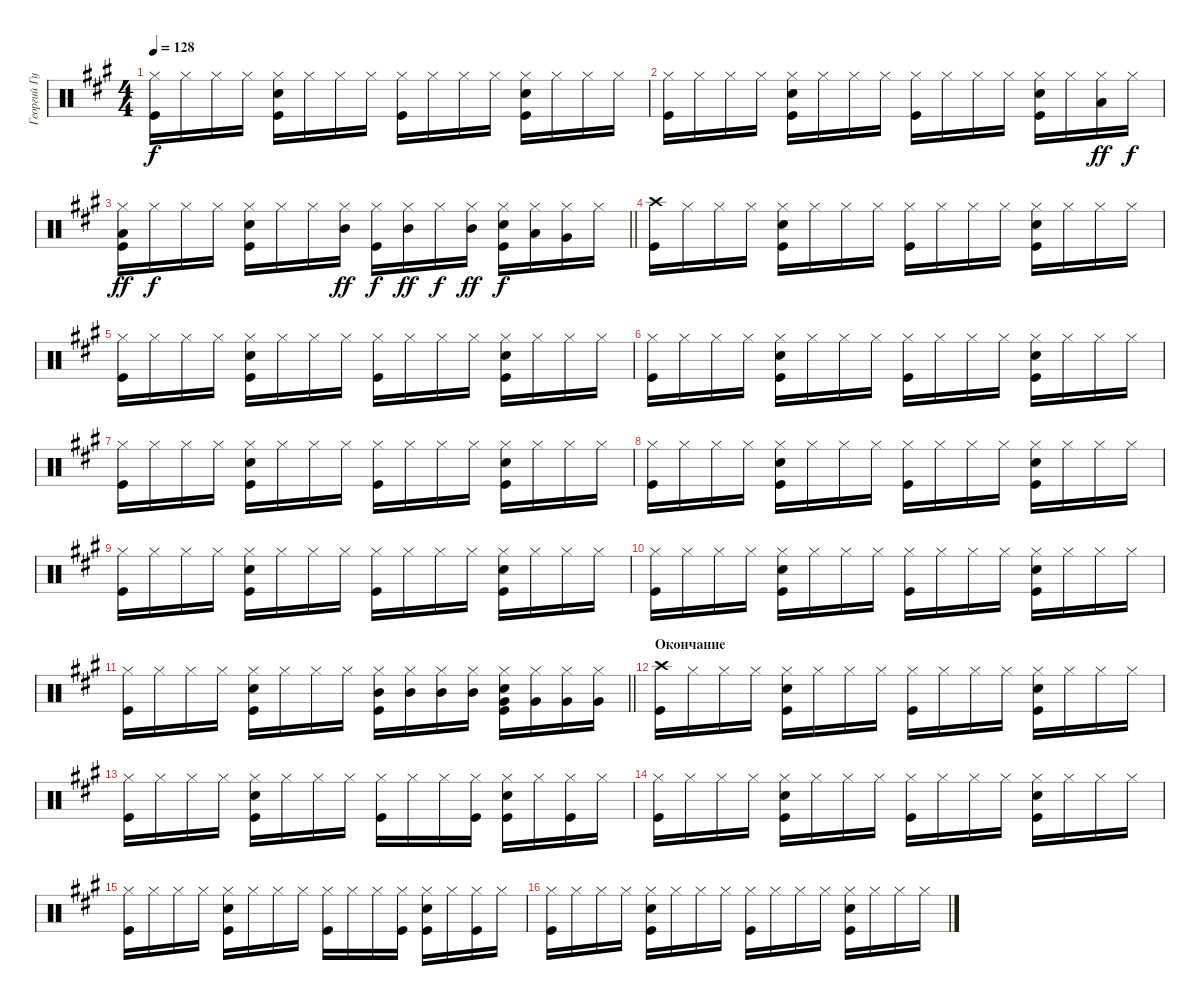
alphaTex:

\track ("Георгий Гурьянов" "Георгий Гу") {instrument percussion}
\staff {score}
\articulation defaults
\ts (4 4)
\tempo 128
\clef neutral
\ks f#minor
("Hi-Hat (closed)" "Kick (hit)").16{dy f} "Hi-Hat (closed)".16 "Hi-Hat (closed)".16 "Hi-Hat (closed)".16 ("Hi-Hat (closed)" "Snare (hit) 2" "Kick (hit)").16 "Hi-Hat (closed)".16 "Hi-Hat (closed)".16 "Hi-Hat (closed)".16 ("Hi-Hat (closed)" "Kick (hit)").16 "Hi-Hat (closed)".16 "Hi-Hat (closed)".16 "Hi-Hat (closed)".16 ("Hi-Hat (closed)" "Snare (hit) 2" "Kick (hit)").16 "Hi-Hat (closed)".16 "Hi-Hat (closed)".16 "Hi-Hat (closed)".16 |
("Hi-Hat (closed)" "Kick (hit)").16 "Hi-Hat (closed)".16 "Hi-Hat (closed)".16 "Hi-Hat (closed)".16 ("Hi-Hat (closed)" "Snare (hit) 2" "Kick (hit)").16 "Hi-Hat (closed)".16 "Hi-Hat (closed)".16 "Hi-Hat (closed)".16 ("Hi-Hat (closed)" "Kick (hit)").16 "Hi-Hat (closed)".16 "Hi-Hat (closed)".16 "Hi-Hat (closed)".16 ("Hi-Hat (closed)" "Snare (hit) 2" "Kick (hit)").16 "Hi-Hat (closed)".16 ("Hi-Hat (closed)" "Low Floor Tom (hit)").16{dy ff} "Hi-Hat (closed)".16{dy f} |
\barLineRight lightlight
("Hi-Hat (closed)" "Kick (hit)" "Low Floor Tom (hit)").16{dy ff} "Hi-Hat (closed)".16{dy f} "Hi-Hat (closed)".16 "Hi-Hat (closed)".16 ("Hi-Hat (closed)" "Snare (hit) 2" "Kick (hit)").16 "Hi-Hat (closed)".16 "Hi-Hat (closed)".16 ("Mid Tom (hit)" "Hi-Hat (closed)").16{dy ff} ("Hi-Hat (closed)" "Kick (hit)").16{dy f} ("Mid Tom (hit)" "Hi-Hat (closed)").16{dy ff} "Hi-Hat (closed)".16{dy f} ("Mid Tom (hit)" "Hi-Hat (closed)").16{dy ff} ("Hi-Hat (closed)" "Snare (hit) 2" "Kick (hit)").16{dy f} ("Hi-Hat (closed)" "Low Tom (hit)").16 ("Very Low Tom (hit)" "Hi-Hat (closed)").16 "Hi-Hat (closed)".16 |
("Kick (hit)" "Crash high (hit)").16 "Hi-Hat (closed)".16 "Hi-Hat (closed)".16 "Hi-Hat (closed)".16 ("Hi-Hat (closed)" "Snare (hit) 2" "Kick (hit)").16 "Hi-Hat (closed)".16 "Hi-Hat (closed)".16 "Hi-Hat (closed)".16 ("Hi-Hat (closed)" "Kick (hit)").16 "Hi-Hat (closed)".16 "Hi-Hat (closed)".16 "Hi-Hat (closed)".16 ("Hi-Hat (closed)" "Snare (hit) 2" "Kick (hit)").16 "Hi-Hat (closed)".16 "Hi-Hat (closed)".16 "Hi-Hat (closed)".16 |
("Kick (hit)" "Hi-Hat (closed)").16 "Hi-Hat (closed)".16 "Hi-Hat (closed)".16 "Hi-Hat (closed)".16 ("Hi-Hat (closed)" "Snare (hit) 2" "Kick (hit)").16 "Hi-Hat (closed)".16 "Hi-Hat (closed)".16 "Hi-Hat (closed)".16 ("Hi-Hat (closed)" "Kick (hit)").16 "Hi-Hat (closed)".16 "Hi-Hat (closed)".16 "Hi-Hat (closed)".16 ("Hi-Hat (closed)" "Snare (hit) 2" "Kick (hit)").16 "Hi-Hat (closed)".16 "Hi-Hat (closed)".16 "Hi-Hat (closed)".16 |
("Hi-Hat (closed)" "Kick (hit)").16 "Hi-Hat (closed)".16 "Hi-Hat (closed)".16 "Hi-Hat (closed)".16 ("Hi-Hat (closed)" "Snare (hit) 2" "Kick (hit)").16 "Hi-Hat (closed)".16 "Hi-Hat (closed)".16 "Hi-Hat (closed)".16 ("Hi-Hat (closed)" "Kick (hit)").16 "Hi-Hat (closed)".16 "Hi-Hat (closed)".16 "Hi-Hat (closed)".16 ("Hi-Hat (closed)" "Snare (hit) 2" "Kick (hit)").16 "Hi-Hat (closed)".16 "Hi-Hat (closed)".16 "Hi-Hat (closed)".16 |
("Hi-Hat (closed)" "Kick (hit)").16 "Hi-Hat (closed)".16 "Hi-Hat (closed)".16 "Hi-Hat (closed)".16 ("Hi-Hat (closed)" "Snare (hit) 2" "Kick (hit)").16 "Hi-Hat (closed)".16 "Hi-Hat (closed)".16 "Hi-Hat (closed)".16 ("Hi-Hat (closed)" "Kick (hit)").16 "Hi-Hat (closed)".16 "Hi-Hat (closed)".16 "Hi-Hat (closed)".16 ("Hi-Hat (closed)" "Snare (hit) 2" "Kick (hit)").16 "Hi-Hat (closed)".16 "Hi-Hat (closed)".16 "Hi-Hat (closed)".16 |
("Kick (hit)" "Hi-Hat (closed)").16 "Hi-Hat (closed)".16 "Hi-Hat (closed)".16 "Hi-Hat (closed)".16 ("Hi-Hat (closed)" "Snare (hit) 2" "Kick (hit)").16 "Hi-Hat (closed)".16 "Hi-Hat (closed)".16 "Hi-Hat (closed)".16 ("Hi-Hat (closed)" "Kick (hit)").16 "Hi-Hat (closed)".16 "Hi-Hat (closed)".16 "Hi-Hat (closed)".16 ("Hi-Hat (closed)" "Snare (hit) 2" "Kick (hit)").16 "Hi-Hat (closed)".16 "Hi-Hat (closed)".16 "Hi-Hat (closed)".16 |
("Hi-Hat (closed)" "Kick (hit)").16 "Hi-Hat (closed)".16 "Hi-Hat (closed)".16 "Hi-Hat (closed)".16 ("Hi-Hat (closed)" "Snare (hit) 2" "Kick (hit)").16 "Hi-Hat (closed)".16 "Hi-Hat (closed)".16 "Hi-Hat (closed)".16 ("Hi-Hat (closed)" "Kick (hit)").16 "Hi-Hat (closed)".16 "Hi-Hat (closed)".16 "Hi-Hat (closed)".16 ("Hi-Hat (closed)" "Snare (hit) 2" "Kick (hit)").16 "Hi-Hat (closed)".16 "Hi-Hat (closed)".16 "Hi-Hat (closed)".16 |
("Hi-Hat (closed)" "Kick (hit)").16 "Hi-Hat (closed)".16 "Hi-Hat (closed)".16 "Hi-Hat (closed)".16 ("Hi-Hat (closed)" "Snare (hit) 2" "Kick (hit)").16 "Hi-Hat (closed)".16 "Hi-Hat (closed)".16 "Hi-Hat (closed)".16 ("Hi-Hat (closed)" "Kick (hit)").16 "Hi-Hat (closed)".16 "Hi-Hat (closed)".16 "Hi-Hat (closed)".16 ("Hi-Hat (closed)" "Snare (hit) 2" "Kick (hit)").16 "Hi-Hat (closed)".16 "Hi-Hat (closed)".16 "Hi-Hat (closed)".16 |
\barLineRight lightlight
("Hi-Hat (closed)" "Kick (hit)").16 "Hi-Hat (closed)".16 "Hi-Hat (closed)".16 "Hi-Hat (closed)".16 ("Hi-Hat (closed)" "Snare (hit) 2" "Kick (hit)").16 "Hi-Hat (closed)".16 "Hi-Hat (closed)".16 "Hi-Hat (closed)".16 ("Mid Tom (hit)" "Hi-Hat (closed)" "Kick (hit)").16 ("Mid Tom (hit)" "Hi-Hat (closed)").16 ("Mid Tom (hit)" "Hi-Hat (closed)").16 ("Mid Tom (hit)" "Hi-Hat (closed)").16 ("Very Low Tom (hit)" "Hi-Hat (closed)" "Snare (hit) 2" "Kick (hit)").16 ("Very Low Tom (hit)" "Hi-Hat (closed)").16 ("Very Low Tom (hit)" "Hi-Hat (closed)").16 ("Very Low Tom (hit)" "Hi-Hat (closed)").16 |
\section ("" "Окончание")
("Kick (hit)" "Crash high (hit)").16 "Hi-Hat (closed)".16 "Hi-Hat (closed)".16 "Hi-Hat (closed)".16 ("Hi-Hat (closed)" "Snare (hit) 2" "Kick (hit)").16 "Hi-Hat (closed)".16 "Hi-Hat (closed)".16 "Hi-Hat (closed)".16 ("Hi-Hat (closed)" "Kick (hit)").16 "Hi-Hat (closed)".16 "Hi-Hat (closed)".16 "Hi-Hat (closed)".16 ("Hi-Hat (closed)" "Snare (hit) 2" "Kick (hit)").16 "Hi-Hat (closed)".16 "Hi-Hat (closed)".16 "Hi-Hat (closed)".16 |
("Hi-Hat (closed)" "Kick (hit)").16 "Hi-Hat (closed)".16 "Hi-Hat (closed)".16 "Hi-Hat (closed)".16 ("Hi-Hat (closed)" "Snare (hit) 2" "Kick (hit)").16 "Hi-Hat (closed)".16 "Hi-Hat (closed)".16 "Hi-Hat (closed)".16 ("Hi-Hat (closed)" "Kick (hit)").16 "Hi-Hat (closed)".16 "Hi-Hat (closed)".16 ("Hi-Hat (closed)" "Kick (hit)").16 ("Hi-Hat (closed)" "Snare (hit) 2" "Kick (hit)").16 "Hi-Hat (closed)".16 ("Hi-Hat (closed)" "Kick (hit)").16 "Hi-Hat (closed)".16 |
("Hi-Hat (closed)" "Kick (hit)").16 "Hi-Hat (closed)".16 "Hi-Hat (closed)".16 "Hi-Hat (closed)".16 ("Hi-Hat (closed)" "Snare (hit) 2" "Kick (hit)").16 "Hi-Hat (closed)".16 "Hi-Hat (closed)".16 "Hi-Hat (closed)".16 ("Hi-Hat (closed)" "Kick (hit)").16 "Hi-Hat (closed)".16 "Hi-Hat (closed)".16 "Hi-Hat (closed)".16 ("Hi-Hat (closed)" "Snare (hit) 2" "Kick (hit)").16 "Hi-Hat (closed)".16 "Hi-Hat (closed)".16 "Hi-Hat (closed)".16 |
("Hi-Hat (closed)" "Kick (hit)").16 "Hi-Hat (closed)".16 "Hi-Hat (closed)".16 "Hi-Hat (closed)".16 ("Hi-Hat (closed)" "Snare (hit) 2" "Kick (hit)").16 "Hi-Hat (closed)".16 "Hi-Hat (closed)".16 "Hi-Hat (closed)".16 ("Hi-Hat (closed)" "Kick (hit)").16 "Hi-Hat (closed)".16 "Hi-Hat (closed)".16 ("Hi-Hat (closed)" "Kick (hit)").16 ("Hi-Hat (closed)" "Snare (hit) 2" "Kick (hit)").16 "Hi-Hat (closed)".16 ("Hi-Hat (closed)" "Kick (hit)").16 "Hi-Hat (closed)".16 |
("Hi-Hat (closed)" "Kick (hit)").16 "Hi-Hat (closed)".16 "Hi-Hat (closed)".16 "Hi-Hat (closed)".16 ("Hi-Hat (closed)" "Snare (hit) 2" "Kick (hit)").16 "Hi-Hat (closed)".16 "Hi-Hat (closed)".16 "Hi-Hat (closed)".16 ("Hi-Hat (closed)" "Kick (hit)").16 "Hi-Hat (closed)".16 "Hi-Hat (closed)".16 "Hi-Hat (closed)".16 ("Hi-Hat (closed)" "Snare (hit) 2" "Kick (hit)").16 "Hi-Hat (closed)".16 "Hi-Hat (closed)".16 "Hi-Hat (closed)".16
